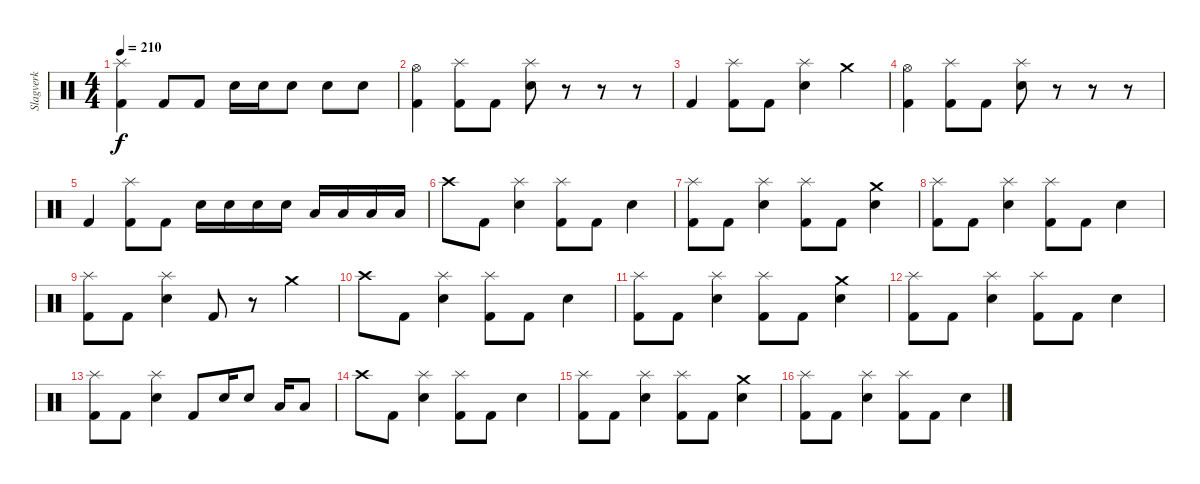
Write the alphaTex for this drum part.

\track ("Slagverk" "Slagverk") {instrument percussion}
\staff {score}
\articulation defaults
\ts (4 4)
\tempo 210
\clef neutral
\ks c
("Splash (hit)" "Kick (hit) 2").4{dy f} "Kick (hit) 2".8 "Kick (hit) 2".8 "Electric Snare (hit)".16 "Electric Snare (hit)".16 "Electric Snare (hit)".8 "Electric Snare (hit)".8 "Electric Snare (hit)".8 |
("Hi-Hat (open)" "Kick (hit) 2").4 ("Splash (hit)" "Kick (hit) 2").8 "Kick (hit) 2".8 ("Splash (hit)" "Electric Snare (hit)").8 r.8 r.8 r.8 |
"Kick (hit) 2".4 ("Splash (hit)" "Kick (hit) 2").8 "Kick (hit) 2".8 ("Splash (hit)" "Electric Snare (hit)").4 "Crash medium (hit)".4 |
("Hi-Hat (open)" "Kick (hit) 2").4 ("Splash (hit)" "Kick (hit) 2").8 "Kick (hit) 2".8 ("Splash (hit)" "Electric Snare (hit)").8 r.8 r.8 r.8 |
"Kick (hit) 2".4 ("Splash (hit)" "Kick (hit) 2").8 "Kick (hit) 2".8 "Electric Snare (hit)".16 "Electric Snare (hit)".16 "Electric Snare (hit)".16 "Electric Snare (hit)".16 "Low Tom (hit)".16 "Low Tom (hit)".16 "Low Tom (hit)".16 "Low Tom (hit)".16 |
"Crash high (hit)".8 "Kick (hit) 2".8 ("Splash (hit)" "Electric Snare (hit)").4 ("Splash (hit)" "Kick (hit) 2").8 "Kick (hit) 2".8 "Electric Snare (hit)".4 |
("Splash (hit)" "Kick (hit) 2").8 "Kick (hit) 2".8 ("Splash (hit)" "Electric Snare (hit)").4 ("Splash (hit)" "Kick (hit) 2").8 "Kick (hit) 2".8 ("Crash medium (hit)" "Electric Snare (hit)").4 |
("Splash (hit)" "Kick (hit) 2").8 "Kick (hit) 2".8 ("Splash (hit)" "Electric Snare (hit)").4 ("Splash (hit)" "Kick (hit) 2").8 "Kick (hit) 2".8 "Electric Snare (hit)".4 |
("Splash (hit)" "Kick (hit) 2").8 "Kick (hit) 2".8 ("Splash (hit)" "Electric Snare (hit)").4 "Kick (hit) 2".8 r.8 "Crash medium (hit)".4 |
"Crash high (hit)".8 "Kick (hit) 2".8 ("Splash (hit)" "Electric Snare (hit)").4 ("Splash (hit)" "Kick (hit) 2").8 "Kick (hit) 2".8 "Electric Snare (hit)".4 |
("Splash (hit)" "Kick (hit) 2").8 "Kick (hit) 2".8 ("Splash (hit)" "Electric Snare (hit)").4 ("Splash (hit)" "Kick (hit) 2").8 "Kick (hit) 2".8 ("Crash medium (hit)" "Electric Snare (hit)").4 |
("Splash (hit)" "Kick (hit) 2").8 "Kick (hit) 2".8 ("Splash (hit)" "Electric Snare (hit)").4 ("Splash (hit)" "Kick (hit) 2").8 "Kick (hit) 2".8 "Electric Snare (hit)".4 |
("Splash (hit)" "Kick (hit) 2").8 "Kick (hit) 2".8 ("Splash (hit)" "Electric Snare (hit)").4 "Kick (hit) 2".8 "Electric Snare (hit)".16 "Electric Snare (hit)".8 "Low Tom (hit)".16 "Low Tom (hit)".8 |
"Crash high (hit)".8 "Kick (hit) 2".8 ("Splash (hit)" "Electric Snare (hit)").4 ("Splash (hit)" "Kick (hit) 2").8 "Kick (hit) 2".8 "Electric Snare (hit)".4 |
("Splash (hit)" "Kick (hit) 2").8 "Kick (hit) 2".8 ("Splash (hit)" "Electric Snare (hit)").4 ("Splash (hit)" "Kick (hit) 2").8 "Kick (hit) 2".8 ("Crash medium (hit)" "Electric Snare (hit)").4 |
("Splash (hit)" "Kick (hit) 2").8 "Kick (hit) 2".8 ("Splash (hit)" "Electric Snare (hit)").4 ("Splash (hit)" "Kick (hit) 2").8 "Kick (hit) 2".8 "Electric Snare (hit)".4
